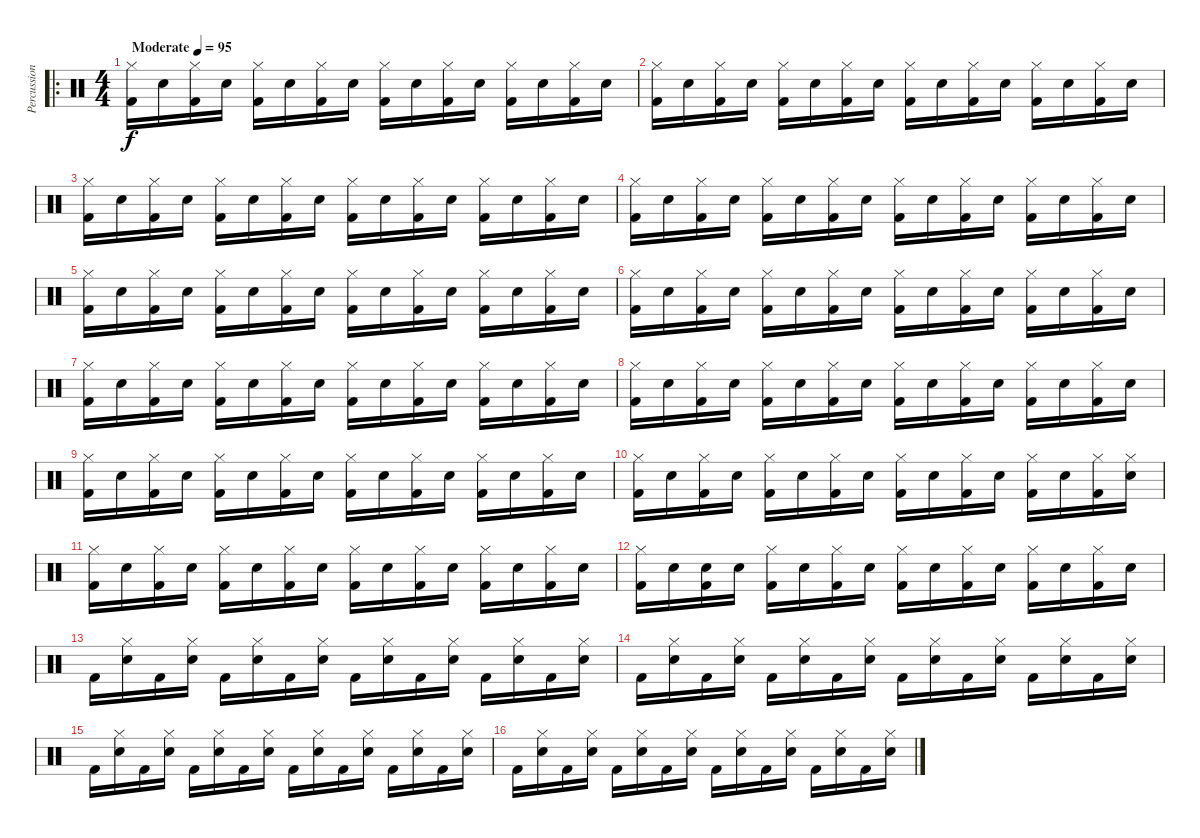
\track ("Percussion" "Percussion") {instrument percussion}
\staff {score}
\articulation defaults
\ro
\ts (4 4)
\tempo (95 "Moderate")
\clef neutral
\ks c
("Kick (hit) 2" "Hi-Hat (closed)").16{dy f} "Electric Snare (hit)".16 ("Kick (hit) 2" "Hi-Hat (closed)").16 "Electric Snare (hit)".16 ("Kick (hit) 2" "Hi-Hat (closed)").16 "Electric Snare (hit)".16 ("Kick (hit) 2" "Hi-Hat (closed)").16 "Electric Snare (hit)".16 ("Kick (hit) 2" "Hi-Hat (closed)").16 "Electric Snare (hit)".16 ("Kick (hit) 2" "Hi-Hat (closed)").16 "Electric Snare (hit)".16 ("Kick (hit) 2" "Hi-Hat (closed)").16 "Electric Snare (hit)".16 ("Kick (hit) 2" "Hi-Hat (closed)").16 "Electric Snare (hit)".16 |
("Kick (hit) 2" "Hi-Hat (closed)").16 "Electric Snare (hit)".16 ("Kick (hit) 2" "Hi-Hat (closed)").16 "Electric Snare (hit)".16 ("Kick (hit) 2" "Hi-Hat (closed)").16 "Electric Snare (hit)".16 ("Kick (hit) 2" "Hi-Hat (closed)").16 "Electric Snare (hit)".16 ("Kick (hit) 2" "Hi-Hat (closed)").16 "Electric Snare (hit)".16 ("Kick (hit) 2" "Hi-Hat (closed)").16 "Electric Snare (hit)".16 ("Kick (hit) 2" "Hi-Hat (closed)").16 "Electric Snare (hit)".16 ("Kick (hit) 2" "Hi-Hat (closed)").16 "Electric Snare (hit)".16 |
("Kick (hit) 2" "Hi-Hat (closed)").16 "Electric Snare (hit)".16 ("Kick (hit) 2" "Hi-Hat (closed)").16 "Electric Snare (hit)".16 ("Kick (hit) 2" "Hi-Hat (closed)").16 "Electric Snare (hit)".16 ("Kick (hit) 2" "Hi-Hat (closed)").16 "Electric Snare (hit)".16 ("Kick (hit) 2" "Hi-Hat (closed)").16 "Electric Snare (hit)".16 ("Kick (hit) 2" "Hi-Hat (closed)").16 "Electric Snare (hit)".16 ("Kick (hit) 2" "Hi-Hat (closed)").16 "Electric Snare (hit)".16 ("Kick (hit) 2" "Hi-Hat (closed)").16 "Electric Snare (hit)".16 |
("Kick (hit) 2" "Hi-Hat (closed)").16 "Electric Snare (hit)".16 ("Kick (hit) 2" "Hi-Hat (closed)").16 "Electric Snare (hit)".16 ("Kick (hit) 2" "Hi-Hat (closed)").16 "Electric Snare (hit)".16 ("Kick (hit) 2" "Hi-Hat (closed)").16 "Electric Snare (hit)".16 ("Kick (hit) 2" "Hi-Hat (closed)").16 "Electric Snare (hit)".16 ("Kick (hit) 2" "Hi-Hat (closed)").16 "Electric Snare (hit)".16 ("Kick (hit) 2" "Hi-Hat (closed)").16 "Electric Snare (hit)".16 ("Kick (hit) 2" "Hi-Hat (closed)").16 "Electric Snare (hit)".16 |
("Kick (hit) 2" "Hi-Hat (closed)").16 "Electric Snare (hit)".16 ("Kick (hit) 2" "Hi-Hat (closed)").16 "Electric Snare (hit)".16 ("Kick (hit) 2" "Hi-Hat (closed)").16 "Electric Snare (hit)".16 ("Kick (hit) 2" "Hi-Hat (closed)").16 "Electric Snare (hit)".16 ("Kick (hit) 2" "Hi-Hat (closed)").16 "Electric Snare (hit)".16 ("Kick (hit) 2" "Hi-Hat (closed)").16 "Electric Snare (hit)".16 ("Kick (hit) 2" "Hi-Hat (closed)").16 "Electric Snare (hit)".16 ("Kick (hit) 2" "Hi-Hat (closed)").16 "Electric Snare (hit)".16 |
("Kick (hit) 2" "Hi-Hat (closed)").16 "Electric Snare (hit)".16 ("Kick (hit) 2" "Hi-Hat (closed)").16 "Electric Snare (hit)".16 ("Kick (hit) 2" "Hi-Hat (closed)").16 "Electric Snare (hit)".16 ("Kick (hit) 2" "Hi-Hat (closed)").16 "Electric Snare (hit)".16 ("Kick (hit) 2" "Hi-Hat (closed)").16 "Electric Snare (hit)".16 ("Kick (hit) 2" "Hi-Hat (closed)").16 "Electric Snare (hit)".16 ("Kick (hit) 2" "Hi-Hat (closed)").16 "Electric Snare (hit)".16 ("Kick (hit) 2" "Hi-Hat (closed)").16 "Electric Snare (hit)".16 |
("Kick (hit) 2" "Hi-Hat (closed)").16 "Electric Snare (hit)".16 ("Kick (hit) 2" "Hi-Hat (closed)").16 "Electric Snare (hit)".16 ("Kick (hit) 2" "Hi-Hat (closed)").16 "Electric Snare (hit)".16 ("Kick (hit) 2" "Hi-Hat (closed)").16 "Electric Snare (hit)".16 ("Kick (hit) 2" "Hi-Hat (closed)").16 "Electric Snare (hit)".16 ("Kick (hit) 2" "Hi-Hat (closed)").16 "Electric Snare (hit)".16 ("Kick (hit) 2" "Hi-Hat (closed)").16 "Electric Snare (hit)".16 ("Kick (hit) 2" "Hi-Hat (closed)").16 "Electric Snare (hit)".16 |
("Kick (hit) 2" "Hi-Hat (closed)").16 "Electric Snare (hit)".16 ("Kick (hit) 2" "Hi-Hat (closed)").16 "Electric Snare (hit)".16 ("Kick (hit) 2" "Hi-Hat (closed)").16 "Electric Snare (hit)".16 ("Kick (hit) 2" "Hi-Hat (closed)").16 "Electric Snare (hit)".16 ("Kick (hit) 2" "Hi-Hat (closed)").16 "Electric Snare (hit)".16 ("Kick (hit) 2" "Hi-Hat (closed)").16 "Electric Snare (hit)".16 ("Kick (hit) 2" "Hi-Hat (closed)").16 "Electric Snare (hit)".16 ("Kick (hit) 2" "Hi-Hat (closed)").16 "Electric Snare (hit)".16 |
("Kick (hit) 2" "Hi-Hat (closed)").16 "Electric Snare (hit)".16 ("Kick (hit) 2" "Hi-Hat (closed)").16 "Electric Snare (hit)".16 ("Kick (hit) 2" "Hi-Hat (closed)").16 "Electric Snare (hit)".16 ("Kick (hit) 2" "Hi-Hat (closed)").16 "Electric Snare (hit)".16 ("Kick (hit) 2" "Hi-Hat (closed)").16 "Electric Snare (hit)".16 ("Kick (hit) 2" "Hi-Hat (closed)").16 "Electric Snare (hit)".16 ("Kick (hit) 2" "Hi-Hat (closed)").16 "Electric Snare (hit)".16 ("Kick (hit) 2" "Hi-Hat (closed)").16 "Electric Snare (hit)".16 |
("Kick (hit) 2" "Hi-Hat (closed)").16 "Electric Snare (hit)".16 ("Kick (hit) 2" "Hi-Hat (closed)").16 "Electric Snare (hit)".16 ("Kick (hit) 2" "Hi-Hat (closed)").16 "Electric Snare (hit)".16 ("Kick (hit) 2" "Hi-Hat (closed)").16 "Electric Snare (hit)".16 ("Kick (hit) 2" "Hi-Hat (closed)").16 "Electric Snare (hit)".16 ("Kick (hit) 2" "Hi-Hat (closed)").16 "Electric Snare (hit)".16 ("Kick (hit) 2" "Hi-Hat (closed)").16 "Electric Snare (hit)".16 ("Kick (hit) 2" "Hi-Hat (closed)").16 ("Electric Snare (hit)" "Hi-Hat (closed)").16 |
("Kick (hit) 2" "Hi-Hat (closed)").16 "Electric Snare (hit)".16 ("Kick (hit) 2" "Hi-Hat (closed)").16 "Electric Snare (hit)".16 ("Kick (hit) 2" "Hi-Hat (closed)").16 "Electric Snare (hit)".16 ("Kick (hit) 2" "Hi-Hat (closed)").16 "Electric Snare (hit)".16 ("Kick (hit) 2" "Hi-Hat (closed)").16 "Electric Snare (hit)".16 ("Kick (hit) 2" "Hi-Hat (closed)").16 "Electric Snare (hit)".16 ("Kick (hit) 2" "Hi-Hat (closed)").16 "Electric Snare (hit)".16 ("Kick (hit) 2" "Hi-Hat (closed)").16 "Electric Snare (hit)".16 |
("Kick (hit) 2" "Hi-Hat (closed)").16 "Electric Snare (hit)".16 ("Kick (hit) 2" "Snare (hit)").16 "Electric Snare (hit)".16 ("Kick (hit) 2" "Hi-Hat (closed)").16 "Electric Snare (hit)".16 ("Kick (hit) 2" "Hi-Hat (closed)").16 "Electric Snare (hit)".16 ("Kick (hit) 2" "Hi-Hat (closed)").16 "Electric Snare (hit)".16 ("Kick (hit) 2" "Hi-Hat (closed)").16 "Electric Snare (hit)".16 ("Kick (hit) 2" "Hi-Hat (closed)").16 "Electric Snare (hit)".16 ("Kick (hit) 2" "Hi-Hat (closed)").16 "Electric Snare (hit)".16 |
"Kick (hit) 2".16 ("Electric Snare (hit)" "Hi-Hat (closed)").16 "Kick (hit) 2".16 ("Electric Snare (hit)" "Hi-Hat (closed)").16 "Kick (hit) 2".16 ("Electric Snare (hit)" "Hi-Hat (closed)").16 "Kick (hit) 2".16 ("Electric Snare (hit)" "Hi-Hat (closed)").16 "Kick (hit) 2".16 ("Electric Snare (hit)" "Hi-Hat (closed)").16 "Kick (hit) 2".16 ("Electric Snare (hit)" "Hi-Hat (closed)").16 "Kick (hit) 2".16 ("Electric Snare (hit)" "Hi-Hat (closed)").16 "Kick (hit) 2".16 ("Electric Snare (hit)" "Hi-Hat (closed)").16 |
"Kick (hit) 2".16 ("Electric Snare (hit)" "Hi-Hat (closed)").16 "Kick (hit) 2".16 ("Electric Snare (hit)" "Hi-Hat (closed)").16 "Kick (hit) 2".16 ("Electric Snare (hit)" "Hi-Hat (closed)").16 "Kick (hit) 2".16 ("Electric Snare (hit)" "Hi-Hat (closed)").16 "Kick (hit) 2".16 ("Electric Snare (hit)" "Hi-Hat (closed)").16 "Kick (hit) 2".16 ("Electric Snare (hit)" "Hi-Hat (closed)").16 "Kick (hit) 2".16 ("Electric Snare (hit)" "Hi-Hat (closed)").16 "Kick (hit) 2".16 ("Electric Snare (hit)" "Hi-Hat (closed)").16 |
"Kick (hit) 2".16 ("Electric Snare (hit)" "Hi-Hat (closed)").16 "Kick (hit) 2".16 ("Electric Snare (hit)" "Hi-Hat (closed)").16 "Kick (hit) 2".16 ("Electric Snare (hit)" "Hi-Hat (closed)").16 "Kick (hit) 2".16 ("Electric Snare (hit)" "Hi-Hat (closed)").16 "Kick (hit) 2".16 ("Electric Snare (hit)" "Hi-Hat (closed)").16 "Kick (hit) 2".16 ("Electric Snare (hit)" "Hi-Hat (closed)").16 "Kick (hit) 2".16 ("Electric Snare (hit)" "Hi-Hat (closed)").16 "Kick (hit) 2".16 ("Electric Snare (hit)" "Hi-Hat (closed)").16 |
"Kick (hit) 2".16 ("Electric Snare (hit)" "Hi-Hat (closed)").16 "Kick (hit) 2".16 ("Electric Snare (hit)" "Hi-Hat (closed)").16 "Kick (hit) 2".16 ("Electric Snare (hit)" "Hi-Hat (closed)").16 "Kick (hit) 2".16 ("Electric Snare (hit)" "Hi-Hat (closed)").16 "Kick (hit) 2".16 ("Electric Snare (hit)" "Hi-Hat (closed)").16 "Kick (hit) 2".16 ("Electric Snare (hit)" "Hi-Hat (closed)").16 "Kick (hit) 2".16 ("Electric Snare (hit)" "Hi-Hat (closed)").16 "Kick (hit) 2".16 ("Electric Snare (hit)" "Hi-Hat (closed)").16
